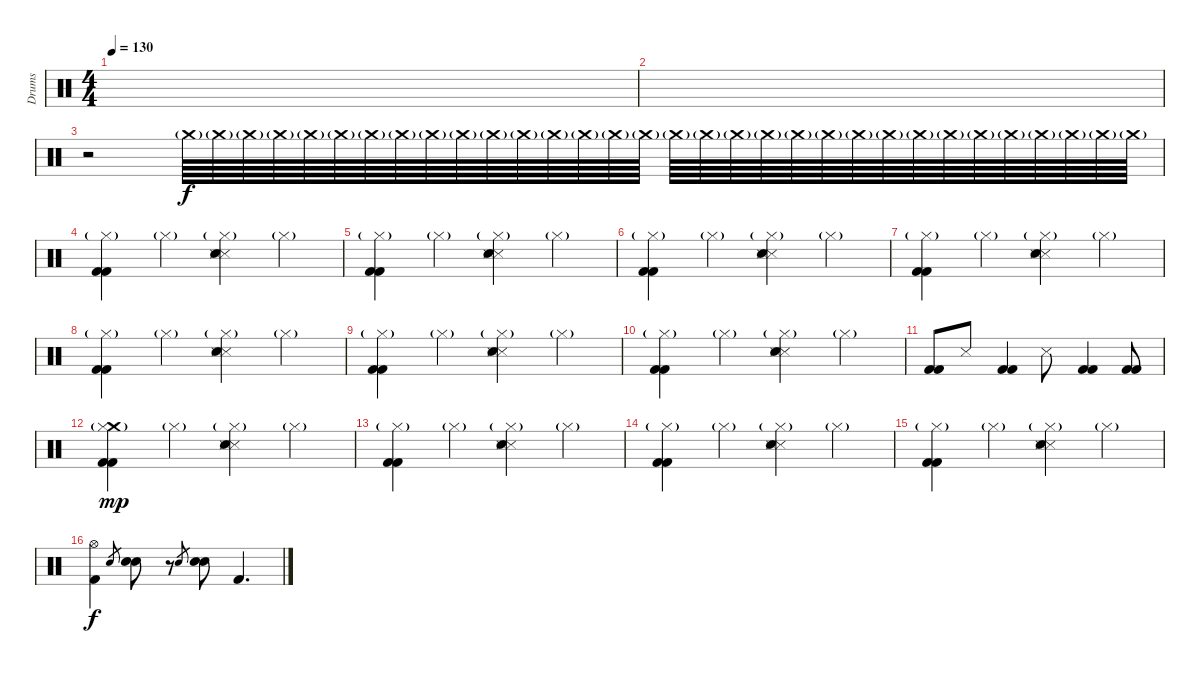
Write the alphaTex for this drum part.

\track ("Drums" "Drums") {instrument percussion}
\staff {score}
\articulation defaults
\ts (4 4)
\tempo 130
\clef neutral
\ks c
|
|
r.2{volume 3} "Crash medium (hit)"{g}.64{volume 15} "Crash medium (hit)"{g}.64 "Crash medium (hit)"{g}.64 "Crash medium (hit)"{g}.64 "Crash medium (hit)"{g}.64 "Crash medium (hit)"{g}.64 "Crash medium (hit)"{g}.64 "Crash medium (hit)"{g}.64 "Crash medium (hit)"{g}.64 "Crash medium (hit)"{g}.64 "Crash medium (hit)"{g}.64 "Crash medium (hit)"{g}.64 "Crash medium (hit)"{g}.64 "Crash medium (hit)"{g}.64 "Crash medium (hit)"{g}.64 "Crash medium (hit)"{g}.64 "Crash medium (hit)"{g}.64 "Crash medium (hit)"{g}.64 "Crash medium (hit)"{g}.64 "Crash medium (hit)"{g}.64 "Crash medium (hit)"{g}.64 "Crash medium (hit)"{g}.64 "Crash medium (hit)"{g}.64 "Crash medium (hit)"{g}.64 "Crash medium (hit)"{g}.64 "Crash medium (hit)"{g}.64 "Crash medium (hit)"{g}.64 "Crash medium (hit)"{g}.64 "Crash medium (hit)"{g}.64 "Crash medium (hit)"{g}.64 "Crash medium (hit)"{g}.64 "Crash medium (hit)"{g}.64 |
("Kick (hit) 2" "Kick (hit) 2" "Hi-Hat (closed)"{g}).4 "Hi-Hat (closed)"{g}.4 ("Snare (side stick) 3" "Snare (side stick) 3" "Snare (hit)" "Hi-Hat (closed)"{g}).4 "Hi-Hat (closed)"{g}.4 |
("Kick (hit) 2" "Kick (hit) 2" "Hi-Hat (closed)"{g}).4 "Hi-Hat (closed)"{g}.4 ("Snare (side stick) 3" "Snare (side stick) 3" "Snare (hit)" "Hi-Hat (closed)"{g}).4 "Hi-Hat (closed)"{g}.4 |
("Kick (hit) 2" "Kick (hit) 2" "Hi-Hat (closed)"{g}).4 "Hi-Hat (closed)"{g}.4 ("Snare (side stick) 3" "Snare (side stick) 3" "Snare (hit)" "Hi-Hat (closed)"{g}).4 "Hi-Hat (closed)"{g}.4 |
("Kick (hit) 2" "Kick (hit) 2" "Hi-Hat (closed)"{g}).4 "Hi-Hat (closed)"{g}.4 ("Snare (side stick) 3" "Snare (side stick) 3" "Snare (hit)" "Hi-Hat (closed)"{g}).4 "Hi-Hat (closed)"{g}.4 |
("Kick (hit) 2" "Kick (hit) 2" "Hi-Hat (closed)"{g}).4 "Hi-Hat (closed)"{g}.4 ("Snare (side stick) 3" "Snare (side stick) 3" "Snare (hit)" "Hi-Hat (closed)"{g}).4 "Hi-Hat (closed)"{g}.4 |
("Kick (hit) 2" "Kick (hit) 2" "Hi-Hat (closed)"{g}).4 "Hi-Hat (closed)"{g}.4 ("Snare (side stick) 3" "Snare (side stick) 3" "Snare (hit)" "Hi-Hat (closed)"{g}).4 "Hi-Hat (closed)"{g}.4 |
("Kick (hit) 2" "Kick (hit) 2" "Hi-Hat (closed)"{g}).4 "Hi-Hat (closed)"{g}.4 ("Snare (side stick) 3" "Snare (side stick) 3" "Snare (hit)" "Hi-Hat (closed)"{g}).4 "Hi-Hat (closed)"{g}.4 |
("Kick (hit) 2" "Kick (hit) 2").8{dy f} "Snare (side stick) 3".8 ("Kick (hit) 2" "Kick (hit) 2").4 "Snare (side stick) 3".8 ("Kick (hit) 2" "Kick (hit) 2").4 ("Kick (hit) 2" "Kick (hit) 2").8 |
("Kick (hit) 2" "Kick (hit) 2" "Crash medium (hit)" "Hi-Hat (closed)"{g}).4{dy mp} "Hi-Hat (closed)"{g}.4 ("Snare (side stick) 3" "Snare (side stick) 3" "Snare (hit)" "Hi-Hat (closed)"{g}).4 "Hi-Hat (closed)"{g}.4 |
("Kick (hit) 2" "Kick (hit) 2" "Hi-Hat (closed)"{g}).4 "Hi-Hat (closed)"{g}.4 ("Snare (side stick) 3" "Snare (side stick) 3" "Snare (hit)" "Hi-Hat (closed)"{g}).4 "Hi-Hat (closed)"{g}.4 |
("Kick (hit) 2" "Kick (hit) 2" "Hi-Hat (closed)"{g}).4 "Hi-Hat (closed)"{g}.4 ("Snare (side stick) 3" "Snare (side stick) 3" "Snare (hit)" "Hi-Hat (closed)"{g}).4 "Hi-Hat (closed)"{g}.4 |
("Kick (hit) 2" "Kick (hit) 2" "Hi-Hat (closed)"{g}).4 "Hi-Hat (closed)"{g}.4 ("Snare (side stick) 3" "Snare (side stick) 3" "Snare (hit)" "Hi-Hat (closed)"{g}).4 "Hi-Hat (closed)"{g}.4 |
("Hi-Hat (open)" "Kick (hit) 2").4{dy f} "Electric Snare (hit)".8{gr} ("Electric Snare (hit)" "Snare (hit) 2").8 r.8 "Electric Snare (hit)".8{gr} ("Electric Snare (hit)" "Snare (hit) 2").8 "Kick (hit) 2".4{d}
